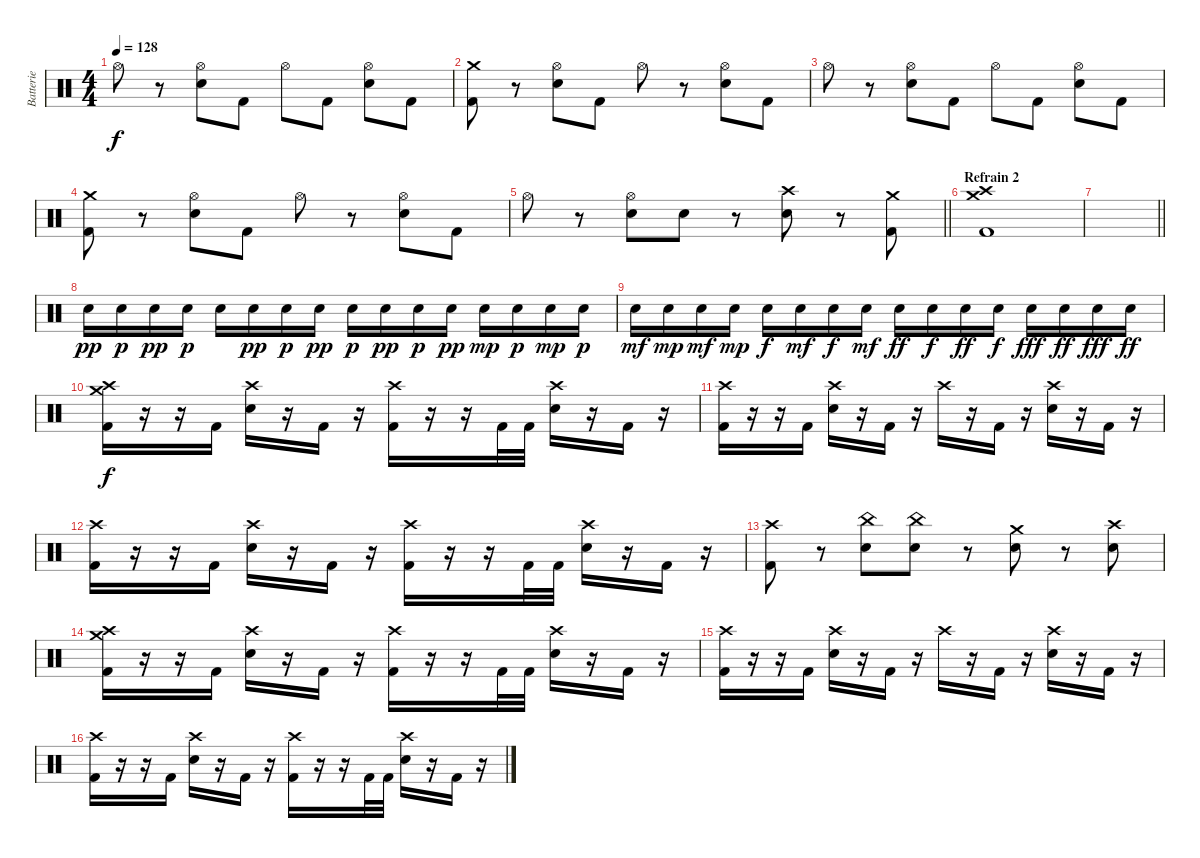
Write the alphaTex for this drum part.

\track ("Batterie" "Batterie") {instrument percussion}
\staff {score}
\articulation defaults
\ts (4 4)
\tempo 128
\clef neutral
\ks c "Hi-Hat (open)".8{dy f}
r.8 ("Electric Snare (hit)" "Hi-Hat (open)").8 "Kick (hit) 2".8 "Hi-Hat (open)".8 "Kick (hit) 2".8 ("Electric Snare (hit)" "Hi-Hat (open)").8 "Kick (hit) 2".8 |
("Kick (hit) 2" "Crash medium (hit)").8 r.8 ("Electric Snare (hit)" "Hi-Hat (open)").8 "Kick (hit) 2".8 "Hi-Hat (open)".8 r.8 ("Electric Snare (hit)" "Hi-Hat (open)").8 "Kick (hit) 2".8 |
"Hi-Hat (open)".8 r.8 ("Electric Snare (hit)" "Hi-Hat (open)").8 "Kick (hit) 2".8 "Hi-Hat (open)".8 "Kick (hit) 2".8 ("Electric Snare (hit)" "Hi-Hat (open)").8 "Kick (hit) 2".8 |
("Kick (hit) 2" "Crash medium (hit)").8 r.8 ("Electric Snare (hit)" "Hi-Hat (open)").8 "Kick (hit) 2".8 "Hi-Hat (open)".8 r.8 ("Electric Snare (hit)" "Hi-Hat (open)").8 "Kick (hit) 2".8 |
\barLineRight lightlight "Hi-Hat (open)".8
r.8 ("Electric Snare (hit)" "Hi-Hat (open)").8 "Electric Snare (hit)".8 r.8 ("Electric Snare (hit)" "Crash high (hit)").8 r.8 ("Kick (hit) 2" "Crash medium (hit)").8 |
\section ("" "Refrain 2")
("Kick (hit) 2" "Crash medium (hit)" "Crash high (hit)").1 |
\barLineRight lightlight
|
"Electric Snare (hit)".16{dy pp} "Electric Snare (hit)".16{dy p} "Electric Snare (hit)".16{dy pp} "Electric Snare (hit)".16{dy p} "Electric Snare (hit)".16 "Electric Snare (hit)".16{dy pp} "Electric Snare (hit)".16{dy p} "Electric Snare (hit)".16{dy pp} "Electric Snare (hit)".16{dy p} "Electric Snare (hit)".16{dy pp} "Electric Snare (hit)".16{dy p} "Electric Snare (hit)".16{dy pp} "Electric Snare (hit)".16{dy mp} "Electric Snare (hit)".16{dy p} "Electric Snare (hit)".16{dy mp} "Electric Snare (hit)".16{dy p} |
"Electric Snare (hit)".16{dy mf} "Electric Snare (hit)".16{dy mp} "Electric Snare (hit)".16{dy mf} "Electric Snare (hit)".16{dy mp} "Electric Snare (hit)".16{dy f} "Electric Snare (hit)".16{dy mf} "Electric Snare (hit)".16{dy f} "Electric Snare (hit)".16{dy mf} "Electric Snare (hit)".16{dy ff} "Electric Snare (hit)".16{dy f} "Electric Snare (hit)".16{dy ff} "Electric Snare (hit)".16{dy f} "Electric Snare (hit)".16{dy fff} "Electric Snare (hit)".16{dy ff} "Electric Snare (hit)".16{dy fff} "Electric Snare (hit)".16{dy ff} |
("Kick (hit) 2" "Crash medium (hit)" "Crash high (hit)").16{dy f} r.16 r.16 "Kick (hit) 2".16 ("Electric Snare (hit)" "Crash high (hit)").16 r.16 "Kick (hit) 2".16 r.16 ("Kick (hit) 2" "Crash high (hit)").16 r.16 r.16 "Kick (hit) 2".32 "Kick (hit) 2".32 ("Electric Snare (hit)" "Crash high (hit)").16 r.16 "Kick (hit) 2".16 r.16 |
("Kick (hit) 2" "Crash high (hit)").16 r.16 r.16 "Kick (hit) 2".16 ("Electric Snare (hit)" "Crash high (hit)").16 r.16 "Kick (hit) 2".16 r.16 "Crash high (hit)".16 r.16 "Kick (hit) 2".16 r.16 ("Electric Snare (hit)" "Crash high (hit)").16 r.16 "Kick (hit) 2".16 r.16 |
("Kick (hit) 2" "Crash high (hit)").16 r.16 r.16 "Kick (hit) 2".16 ("Electric Snare (hit)" "Crash high (hit)").16 r.16 "Kick (hit) 2".16 r.16 ("Kick (hit) 2" "Crash high (hit)").16 r.16 r.16 "Kick (hit) 2".32 "Kick (hit) 2".32 ("Electric Snare (hit)" "Crash high (hit)").16 r.16 "Kick (hit) 2".16 r.16 |
("Kick (hit) 2" "Crash high (hit)").8 r.8 ("Electric Snare (hit)" "China (hit)").8 ("Electric Snare (hit)" "China (hit)").8 r.8 ("Electric Snare (hit)" "Crash medium (hit)").8 r.8 ("Electric Snare (hit)" "Crash high (hit)").8 |
("Kick (hit) 2" "Crash medium (hit)" "Crash high (hit)").16 r.16 r.16 "Kick (hit) 2".16 ("Electric Snare (hit)" "Crash high (hit)").16 r.16 "Kick (hit) 2".16 r.16 ("Kick (hit) 2" "Crash high (hit)").16 r.16 r.16 "Kick (hit) 2".32 "Kick (hit) 2".32 ("Electric Snare (hit)" "Crash high (hit)").16 r.16 "Kick (hit) 2".16 r.16 |
("Kick (hit) 2" "Crash high (hit)").16 r.16 r.16 "Kick (hit) 2".16 ("Electric Snare (hit)" "Crash high (hit)").16 r.16 "Kick (hit) 2".16 r.16 "Crash high (hit)".16 r.16 "Kick (hit) 2".16 r.16 ("Electric Snare (hit)" "Crash high (hit)").16 r.16 "Kick (hit) 2".16 r.16 |
("Kick (hit) 2" "Crash high (hit)").16 r.16 r.16 "Kick (hit) 2".16 ("Electric Snare (hit)" "Crash high (hit)").16 r.16 "Kick (hit) 2".16 r.16 ("Kick (hit) 2" "Crash high (hit)").16 r.16 r.16 "Kick (hit) 2".32 "Kick (hit) 2".32 ("Electric Snare (hit)" "Crash high (hit)").16 r.16 "Kick (hit) 2".16 r.16
